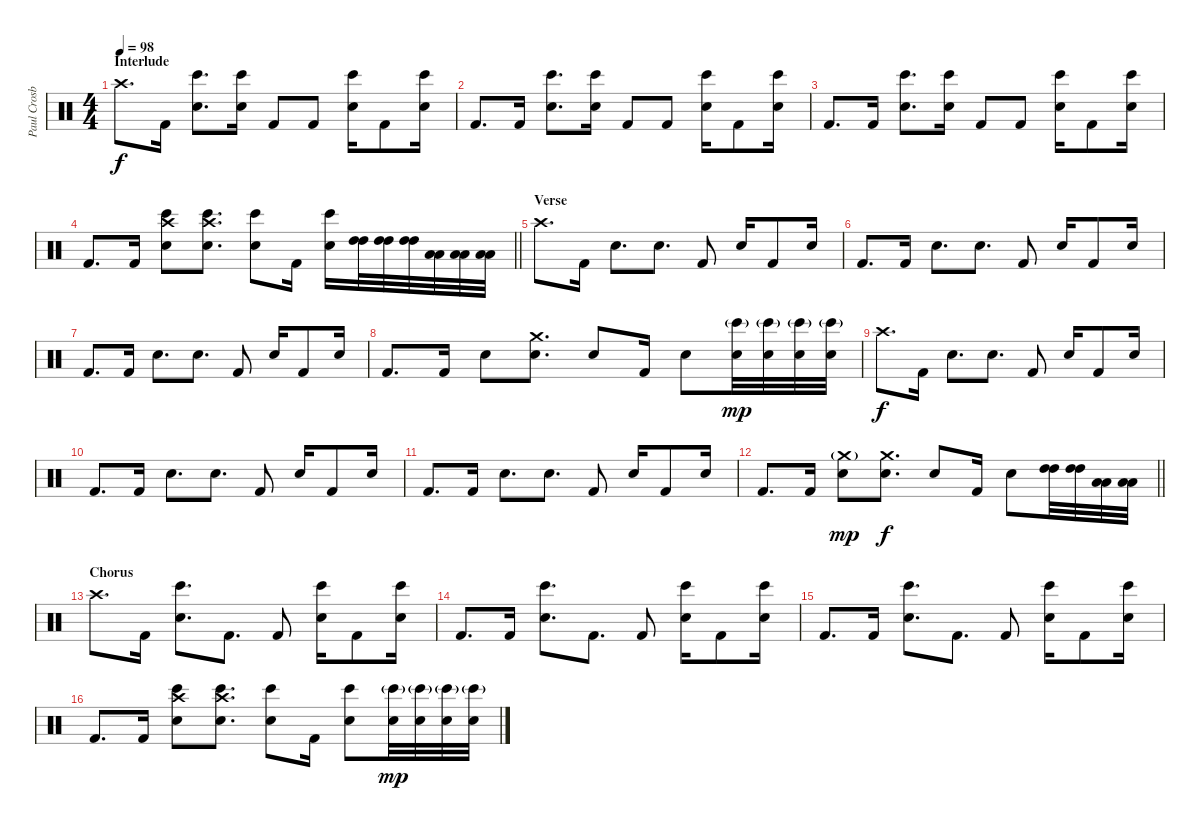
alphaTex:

\track ("Paul Crosby (Drums)" "Paul Crosb") {instrument percussion}
\staff {score}
\articulation defaults
\ts (4 4)
\section ("" "Interlude")
\tempo 98
\clef neutral
\ks c "Crash high (hit)".8{d dy f} "Kick (hit) 2".16
("Electric Snare (hit)" "Bongo High (hit)").8{d} ("Electric Snare (hit)" "Bongo High (hit)").16 "Kick (hit) 2".8 "Kick (hit) 2".8 ("Electric Snare (hit)" "Bongo High (hit)").16 "Kick (hit) 2".8 ("Electric Snare (hit)" "Bongo High (hit)").16 |
"Kick (hit) 2".8{d} "Kick (hit) 2".16 ("Electric Snare (hit)" "Bongo High (hit)").8{d} ("Electric Snare (hit)" "Bongo High (hit)").16 "Kick (hit) 2".8 "Kick (hit) 2".8 ("Electric Snare (hit)" "Bongo High (hit)").16 "Kick (hit) 2".8 ("Electric Snare (hit)" "Bongo High (hit)").16 |
"Kick (hit) 2".8{d} "Kick (hit) 2".16 ("Electric Snare (hit)" "Bongo High (hit)").8{d} ("Electric Snare (hit)" "Bongo High (hit)").16 "Kick (hit) 2".8 "Kick (hit) 2".8 ("Electric Snare (hit)" "Bongo High (hit)").16 "Kick (hit) 2".8 ("Electric Snare (hit)" "Bongo High (hit)").16 |
\barLineRight lightlight "Kick (hit) 2".8{d} "Kick (hit) 2".16
("Crash high (hit)" "Electric Snare (hit)" "Bongo High (hit)").8 ("Crash high (hit)" "Electric Snare (hit)" "Bongo High (hit)").8{d} ("Electric Snare (hit)" "Bongo High (hit)").8 "Kick (hit) 2".16 ("Electric Snare (hit)" "Bongo High (hit)").16 ("High Tom (hit)" "High Tom (hit)").32 ("High Tom (hit)" "High Tom (hit)").32 ("High Tom (hit)" "High Tom (hit)").32 ("Low Tom (hit)" "Low Tom (hit)").32 ("Low Tom (hit)" "Low Tom (hit)").32 ("Low Tom (hit)" "Low Tom (hit)").32 |
\section ("" "Verse")
"Crash high (hit)".8{d} "Kick (hit) 2".16 "Electric Snare (hit)".8{d} "Electric Snare (hit)".8{d} "Kick (hit) 2".8 "Electric Snare (hit)".16 "Kick (hit) 2".8 "Electric Snare (hit)".16 |
"Kick (hit) 2".8{d} "Kick (hit) 2".16 "Electric Snare (hit)".8{d} "Electric Snare (hit)".8{d} "Kick (hit) 2".8 "Electric Snare (hit)".16 "Kick (hit) 2".8 "Electric Snare (hit)".16 |
"Kick (hit) 2".8{d} "Kick (hit) 2".16 "Electric Snare (hit)".8{d} "Electric Snare (hit)".8{d} "Kick (hit) 2".8 "Electric Snare (hit)".16 "Kick (hit) 2".8 "Electric Snare (hit)".16 |
"Kick (hit) 2".8{d} "Kick (hit) 2".16 "Electric Snare (hit)".8 ("Electric Snare (hit)" "Crash medium (hit)").8{d} "Electric Snare (hit)".8 "Kick (hit) 2".16 "Electric Snare (hit)".8 ("Electric Snare (hit)" "Bongo High (hit)"{g}).32{dy mp} ("Electric Snare (hit)" "Bongo High (hit)"{g}).32 ("Electric Snare (hit)" "Bongo High (hit)"{g}).32 ("Electric Snare (hit)" "Bongo High (hit)"{g}).32 |
"Crash high (hit)".8{d dy f} "Kick (hit) 2".16 "Electric Snare (hit)".8{d} "Electric Snare (hit)".8{d} "Kick (hit) 2".8 "Electric Snare (hit)".16 "Kick (hit) 2".8 "Electric Snare (hit)".16 |
"Kick (hit) 2".8{d} "Kick (hit) 2".16 "Electric Snare (hit)".8{d} "Electric Snare (hit)".8{d} "Kick (hit) 2".8 "Electric Snare (hit)".16 "Kick (hit) 2".8 "Electric Snare (hit)".16 |
"Kick (hit) 2".8{d} "Kick (hit) 2".16 "Electric Snare (hit)".8{d} "Electric Snare (hit)".8{d} "Kick (hit) 2".8 "Electric Snare (hit)".16 "Kick (hit) 2".8 "Electric Snare (hit)".16 |
\barLineRight lightlight "Kick (hit) 2".8{d} "Kick (hit) 2".16
("Electric Snare (hit)" "Crash medium (hit)"{g}).8{dy mp} ("Electric Snare (hit)" "Crash medium (hit)").8{d dy f} "Electric Snare (hit)".8 "Kick (hit) 2".16 "Electric Snare (hit)".8 ("High Tom (hit)" "High Tom (hit)").32 ("High Tom (hit)" "High Tom (hit)").32 ("Low Tom (hit)" "Low Tom (hit)").32 ("Low Tom (hit)" "Low Tom (hit)").32 |
\section ("" "Chorus")
"Crash high (hit)".8{d} "Kick (hit) 2".16 ("Electric Snare (hit)" "Bongo High (hit)").8{d} "Kick (hit) 2".8{d} "Kick (hit) 2".8 ("Electric Snare (hit)" "Bongo High (hit)").16 "Kick (hit) 2".8 ("Electric Snare (hit)" "Bongo High (hit)").16 |
"Kick (hit) 2".8{d} "Kick (hit) 2".16 ("Electric Snare (hit)" "Bongo High (hit)").8{d} "Kick (hit) 2".8{d} "Kick (hit) 2".8 ("Electric Snare (hit)" "Bongo High (hit)").16 "Kick (hit) 2".8 ("Electric Snare (hit)" "Bongo High (hit)").16 |
"Kick (hit) 2".8{d} "Kick (hit) 2".16 ("Electric Snare (hit)" "Bongo High (hit)").8{d} "Kick (hit) 2".8{d} "Kick (hit) 2".8 ("Electric Snare (hit)" "Bongo High (hit)").16 "Kick (hit) 2".8 ("Electric Snare (hit)" "Bongo High (hit)").16 |
"Kick (hit) 2".8{d} "Kick (hit) 2".16 ("Crash high (hit)" "Electric Snare (hit)" "Bongo High (hit)").8 ("Crash high (hit)" "Electric Snare (hit)" "Bongo High (hit)").8{d} ("Electric Snare (hit)" "Bongo High (hit)").8 "Kick (hit) 2".16 ("Electric Snare (hit)" "Bongo High (hit)").8 ("Electric Snare (hit)" "Bongo High (hit)"{g}).32{dy mp} ("Electric Snare (hit)" "Bongo High (hit)"{g}).32 ("Electric Snare (hit)" "Bongo High (hit)"{g}).32 ("Electric Snare (hit)" "Bongo High (hit)"{g}).32
